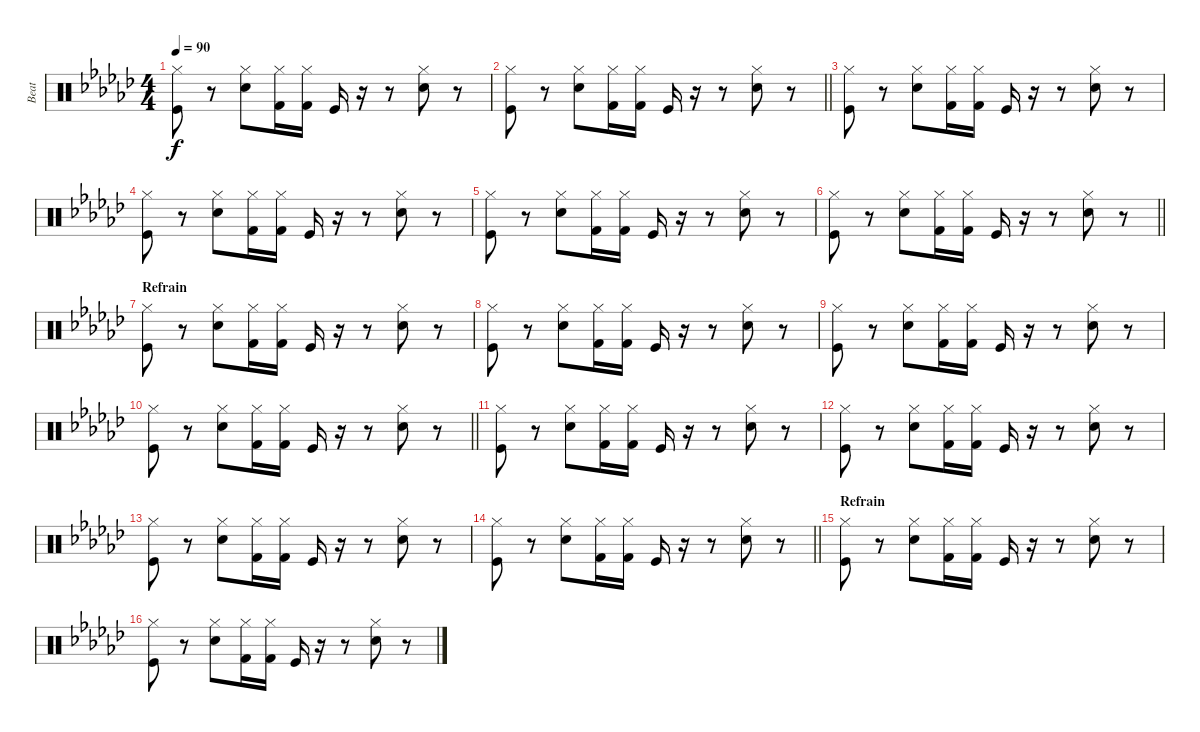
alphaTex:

\track ("Beat" "Beat") {instrument percussion}
\staff {score}
\articulation defaults
\ts (4 4)
\tempo 90
\clef neutral
\ks ebminor
("Hi-Hat (closed)" "Kick (hit)").8{dy f} r.8 ("Hi-Hat (closed)" "Electric Snare (hit)").8 ("Hi-Hat (closed)" "Kick (hit) 2").16 ("Hi-Hat (closed)" "Kick (hit) 2").16 "Kick (hit)".16 r.16 r.8 ("Hi-Hat (closed)" "Electric Snare (hit)").8 r.8 |
\barLineRight lightlight
("Hi-Hat (closed)" "Kick (hit)").8 r.8 ("Hi-Hat (closed)" "Electric Snare (hit)").8 ("Hi-Hat (closed)" "Kick (hit) 2").16 ("Hi-Hat (closed)" "Kick (hit) 2").16 "Kick (hit)".16 r.16 r.8 ("Hi-Hat (closed)" "Electric Snare (hit)").8 r.8 |
("Hi-Hat (closed)" "Kick (hit)").8 r.8 ("Hi-Hat (closed)" "Electric Snare (hit)").8 ("Hi-Hat (closed)" "Kick (hit) 2").16 ("Hi-Hat (closed)" "Kick (hit) 2").16 "Kick (hit)".16 r.16 r.8 ("Hi-Hat (closed)" "Electric Snare (hit)").8 r.8 |
("Hi-Hat (closed)" "Kick (hit)").8 r.8 ("Hi-Hat (closed)" "Electric Snare (hit)").8 ("Hi-Hat (closed)" "Kick (hit) 2").16 ("Hi-Hat (closed)" "Kick (hit) 2").16 "Kick (hit)".16 r.16 r.8 ("Hi-Hat (closed)" "Electric Snare (hit)").8 r.8 |
("Hi-Hat (closed)" "Kick (hit)").8 r.8 ("Hi-Hat (closed)" "Electric Snare (hit)").8 ("Hi-Hat (closed)" "Kick (hit) 2").16 ("Hi-Hat (closed)" "Kick (hit) 2").16 "Kick (hit)".16 r.16 r.8 ("Hi-Hat (closed)" "Electric Snare (hit)").8 r.8 |
\barLineRight lightlight
("Hi-Hat (closed)" "Kick (hit)").8 r.8 ("Hi-Hat (closed)" "Electric Snare (hit)").8 ("Hi-Hat (closed)" "Kick (hit) 2").16 ("Hi-Hat (closed)" "Kick (hit) 2").16 "Kick (hit)".16 r.16 r.8 ("Hi-Hat (closed)" "Electric Snare (hit)").8 r.8 |
\section ("" "Refrain")
("Hi-Hat (closed)" "Kick (hit)").8 r.8 ("Hi-Hat (closed)" "Electric Snare (hit)").8 ("Hi-Hat (closed)" "Kick (hit) 2").16 ("Hi-Hat (closed)" "Kick (hit) 2").16 "Kick (hit)".16 r.16 r.8 ("Hi-Hat (closed)" "Electric Snare (hit)").8 r.8 |
("Hi-Hat (closed)" "Kick (hit)").8 r.8 ("Hi-Hat (closed)" "Electric Snare (hit)").8 ("Hi-Hat (closed)" "Kick (hit) 2").16 ("Hi-Hat (closed)" "Kick (hit) 2").16 "Kick (hit)".16 r.16 r.8 ("Hi-Hat (closed)" "Electric Snare (hit)").8 r.8 |
("Hi-Hat (closed)" "Kick (hit)").8 r.8 ("Hi-Hat (closed)" "Electric Snare (hit)").8 ("Hi-Hat (closed)" "Kick (hit) 2").16 ("Hi-Hat (closed)" "Kick (hit) 2").16 "Kick (hit)".16 r.16 r.8 ("Hi-Hat (closed)" "Electric Snare (hit)").8 r.8 |
\barLineRight lightlight
("Hi-Hat (closed)" "Kick (hit)").8 r.8 ("Hi-Hat (closed)" "Electric Snare (hit)").8 ("Hi-Hat (closed)" "Kick (hit) 2").16 ("Hi-Hat (closed)" "Kick (hit) 2").16 "Kick (hit)".16 r.16 r.8 ("Hi-Hat (closed)" "Electric Snare (hit)").8 r.8 |
("Hi-Hat (closed)" "Kick (hit)").8 r.8 ("Hi-Hat (closed)" "Electric Snare (hit)").8 ("Hi-Hat (closed)" "Kick (hit) 2").16 ("Hi-Hat (closed)" "Kick (hit) 2").16 "Kick (hit)".16 r.16 r.8 ("Hi-Hat (closed)" "Electric Snare (hit)").8 r.8 |
("Hi-Hat (closed)" "Kick (hit)").8 r.8 ("Hi-Hat (closed)" "Electric Snare (hit)").8 ("Hi-Hat (closed)" "Kick (hit) 2").16 ("Hi-Hat (closed)" "Kick (hit) 2").16 "Kick (hit)".16 r.16 r.8 ("Hi-Hat (closed)" "Electric Snare (hit)").8 r.8 |
("Hi-Hat (closed)" "Kick (hit)").8 r.8 ("Hi-Hat (closed)" "Electric Snare (hit)").8 ("Hi-Hat (closed)" "Kick (hit) 2").16 ("Hi-Hat (closed)" "Kick (hit) 2").16 "Kick (hit)".16 r.16 r.8 ("Hi-Hat (closed)" "Electric Snare (hit)").8 r.8 |
\barLineRight lightlight
("Hi-Hat (closed)" "Kick (hit)").8 r.8 ("Hi-Hat (closed)" "Electric Snare (hit)").8 ("Hi-Hat (closed)" "Kick (hit) 2").16 ("Hi-Hat (closed)" "Kick (hit) 2").16 "Kick (hit)".16 r.16 r.8 ("Hi-Hat (closed)" "Electric Snare (hit)").8 r.8 |
\section ("" "Refrain")
("Hi-Hat (closed)" "Kick (hit)").8 r.8 ("Hi-Hat (closed)" "Electric Snare (hit)").8 ("Hi-Hat (closed)" "Kick (hit) 2").16 ("Hi-Hat (closed)" "Kick (hit) 2").16 "Kick (hit)".16 r.16 r.8 ("Hi-Hat (closed)" "Electric Snare (hit)").8 r.8 |
("Hi-Hat (closed)" "Kick (hit)").8 r.8 ("Hi-Hat (closed)" "Electric Snare (hit)").8 ("Hi-Hat (closed)" "Kick (hit) 2").16 ("Hi-Hat (closed)" "Kick (hit) 2").16 "Kick (hit)".16 r.16 r.8 ("Hi-Hat (closed)" "Electric Snare (hit)").8 r.8
